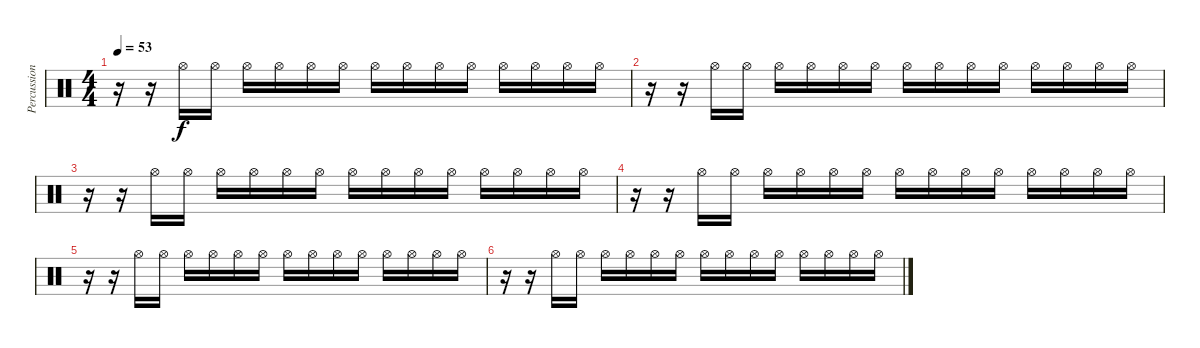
\track ("Percussion" "Percussion") {instrument percussion}
\staff {score}
\articulation defaults
\ts (4 4)
\tempo 53
\clef neutral
\ks c
r.16{dy f volume 6} r.16{volume 6} "Hi-Hat (open)".16{volume 6} "Hi-Hat (open)".16{volume 6} "Hi-Hat (open)".16{volume 6} "Hi-Hat (open)".16{volume 6} "Hi-Hat (open)".16{volume 6} "Hi-Hat (open)".16{volume 6} "Hi-Hat (open)".16{volume 6} "Hi-Hat (open)".16{volume 6} "Hi-Hat (open)".16{volume 6} "Hi-Hat (open)".16{volume 6} "Hi-Hat (open)".16{volume 6} "Hi-Hat (open)".16{volume 6} "Hi-Hat (open)".16{volume 6} "Hi-Hat (open)".16{volume 6} |
r.16{volume 6} r.16{volume 6} "Hi-Hat (open)".16{volume 6} "Hi-Hat (open)".16{volume 6} "Hi-Hat (open)".16{volume 6} "Hi-Hat (open)".16{volume 6} "Hi-Hat (open)".16{volume 6} "Hi-Hat (open)".16{volume 6} "Hi-Hat (open)".16{volume 6} "Hi-Hat (open)".16{volume 6} "Hi-Hat (open)".16{volume 6} "Hi-Hat (open)".16{volume 6} "Hi-Hat (open)".16{volume 6} "Hi-Hat (open)".16{volume 6} "Hi-Hat (open)".16{volume 6} "Hi-Hat (open)".16{volume 6} |
r.16{volume 6} r.16{volume 6} "Hi-Hat (open)".16{volume 6} "Hi-Hat (open)".16{volume 6} "Hi-Hat (open)".16{volume 6} "Hi-Hat (open)".16{volume 6} "Hi-Hat (open)".16{volume 6} "Hi-Hat (open)".16{volume 6} "Hi-Hat (open)".16{volume 6} "Hi-Hat (open)".16{volume 6} "Hi-Hat (open)".16{volume 6} "Hi-Hat (open)".16{volume 6} "Hi-Hat (open)".16{volume 6} "Hi-Hat (open)".16{volume 6} "Hi-Hat (open)".16{volume 6} "Hi-Hat (open)".16{volume 6} |
r.16{volume 6} r.16{volume 6} "Hi-Hat (open)".16{volume 6} "Hi-Hat (open)".16{volume 6} "Hi-Hat (open)".16{volume 6} "Hi-Hat (open)".16{volume 6} "Hi-Hat (open)".16{volume 6} "Hi-Hat (open)".16{volume 6} "Hi-Hat (open)".16{volume 6} "Hi-Hat (open)".16{volume 6} "Hi-Hat (open)".16{volume 6} "Hi-Hat (open)".16{volume 6} "Hi-Hat (open)".16{volume 6} "Hi-Hat (open)".16{volume 6} "Hi-Hat (open)".16{volume 6} "Hi-Hat (open)".16{volume 6} |
r.16{volume 6} r.16{volume 6} "Hi-Hat (open)".16{volume 6} "Hi-Hat (open)".16{volume 6} "Hi-Hat (open)".16{volume 6} "Hi-Hat (open)".16{volume 6} "Hi-Hat (open)".16{volume 6} "Hi-Hat (open)".16{volume 6} "Hi-Hat (open)".16{volume 6} "Hi-Hat (open)".16{volume 6} "Hi-Hat (open)".16{volume 6} "Hi-Hat (open)".16{volume 6} "Hi-Hat (open)".16{volume 6} "Hi-Hat (open)".16{volume 6} "Hi-Hat (open)".16{volume 6} "Hi-Hat (open)".16{volume 6} |
r.16{volume 6} r.16{volume 6} "Hi-Hat (open)".16{volume 6} "Hi-Hat (open)".16{volume 6} "Hi-Hat (open)".16{volume 6} "Hi-Hat (open)".16{volume 6} "Hi-Hat (open)".16{volume 6} "Hi-Hat (open)".16{volume 6} "Hi-Hat (open)".16{volume 6} "Hi-Hat (open)".16{volume 6} "Hi-Hat (open)".16{volume 6} "Hi-Hat (open)".16{volume 6} "Hi-Hat (open)".16{volume 6} "Hi-Hat (open)".16{volume 6} "Hi-Hat (open)".16{volume 6} "Hi-Hat (open)".16{volume 6}
